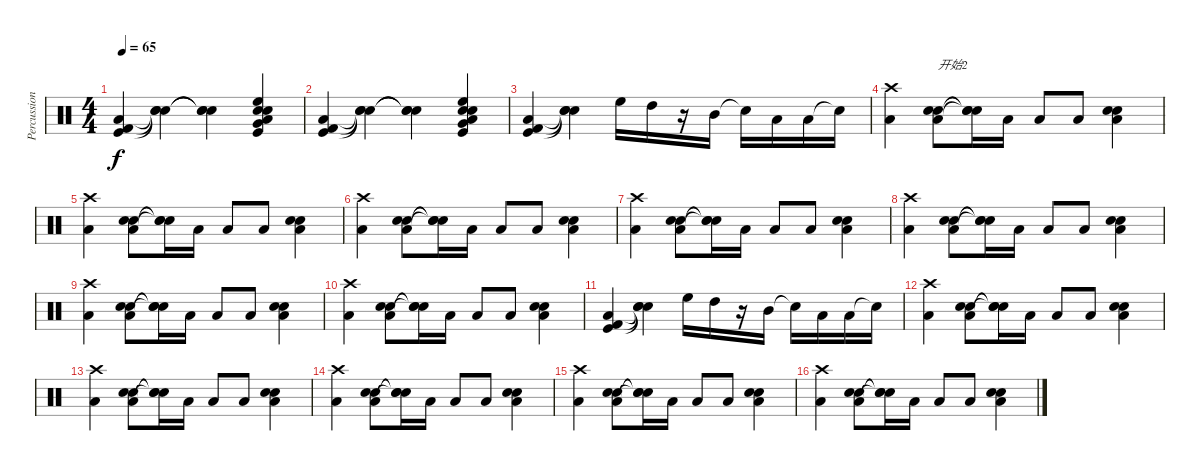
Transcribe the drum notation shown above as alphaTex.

\track ("Percussion" "Percussion") {instrument percussion}
\staff {score}
\articulation defaults
\ts (4 4)
\tempo 65
\clef neutral
\ks c
("Low Floor Tom (hit)" "Kick (hit)" "Kick (hit) 2").4{dy f} ("Snare (hit)"{t} "Snare (hit)"{t} "Snare (hit)"{t}).4 ("Snare (hit)"{t} "Snare (hit)"{t} "Snare (hit)"{t}).4 ("Electric Snare (hit)" "Kick (hit)" "High Floor Tom (hit)" "Hand Clap (hit)" "Low Tom (hit)" "Very Low Tom (hit)").4 |
("Low Floor Tom (hit)" "Kick (hit)" "Kick (hit) 2").4 ("Snare (hit)"{t} "Snare (hit)"{t} "Snare (hit)"{t}).4 ("Snare (hit)"{t} "Snare (hit)"{t} "Snare (hit)"{t}).4 ("Electric Snare (hit)" "Kick (hit)" "High Floor Tom (hit)" "Hand Clap (hit)" "Low Tom (hit)" "Very Low Tom (hit)").4 |
("Low Floor Tom (hit)" "Kick (hit)" "Kick (hit) 2").4 ("Snare (hit)"{t} "Snare (hit)"{t} "Snare (hit)"{t}).4 "High Floor Tom (hit)".16 "High Tom (hit)".16 r.16 "Mid Tom (hit)".16 "Snare (hit)"{t}.16 "Low Tom (hit)".16 "Low Tom (hit)".16 "Snare (hit)"{t}.16 |
("Crash high (hit)" "Low Tom (hit)").4 ("Snare (hit) 2" "Electric Snare (hit)" "Low Tom (hit)").8{txt "开始2"} ("Snare (hit)"{t} "Snare (hit)"{t} "Snare (hit)"{t}).16 "Low Tom (hit)".16 "Low Tom (hit)".8 "Low Tom (hit)".8 ("Snare (hit) 2" "Electric Snare (hit)" "Low Tom (hit)").4 |
("Crash high (hit)" "Low Tom (hit)").4 ("Snare (hit) 2" "Electric Snare (hit)" "Low Tom (hit)").8 ("Snare (hit)"{t} "Snare (hit)"{t} "Snare (hit)"{t}).16 "Low Tom (hit)".16 "Low Tom (hit)".8 "Low Tom (hit)".8 ("Snare (hit) 2" "Electric Snare (hit)" "Low Tom (hit)").4 |
("Crash high (hit)" "Low Tom (hit)").4 ("Snare (hit) 2" "Electric Snare (hit)" "Low Tom (hit)").8 ("Snare (hit)"{t} "Snare (hit)"{t} "Snare (hit)"{t}).16 "Low Tom (hit)".16 "Low Tom (hit)".8 "Low Tom (hit)".8 ("Snare (hit) 2" "Electric Snare (hit)" "Low Tom (hit)").4 |
("Crash high (hit)" "Low Tom (hit)").4 ("Snare (hit) 2" "Electric Snare (hit)" "Low Tom (hit)").8 ("Snare (hit)"{t} "Snare (hit)"{t} "Snare (hit)"{t}).16 "Low Tom (hit)".16 "Low Tom (hit)".8 "Low Tom (hit)".8 ("Snare (hit) 2" "Electric Snare (hit)" "Low Tom (hit)").4 |
("Crash high (hit)" "Low Tom (hit)").4 ("Snare (hit) 2" "Electric Snare (hit)" "Low Tom (hit)").8 ("Snare (hit)"{t} "Snare (hit)"{t} "Snare (hit)"{t}).16 "Low Tom (hit)".16 "Low Tom (hit)".8 "Low Tom (hit)".8 ("Snare (hit) 2" "Electric Snare (hit)" "Low Tom (hit)").4 |
("Crash high (hit)" "Low Tom (hit)").4 ("Snare (hit) 2" "Electric Snare (hit)" "Low Tom (hit)").8 ("Snare (hit)"{t} "Snare (hit)"{t} "Snare (hit)"{t}).16 "Low Tom (hit)".16 "Low Tom (hit)".8 "Low Tom (hit)".8 ("Snare (hit) 2" "Electric Snare (hit)" "Low Tom (hit)").4 |
("Crash high (hit)" "Low Tom (hit)").4 ("Snare (hit) 2" "Electric Snare (hit)" "Low Tom (hit)").8 ("Snare (hit)"{t} "Snare (hit)"{t} "Snare (hit)"{t}).16 "Low Tom (hit)".16 "Low Tom (hit)".8 "Low Tom (hit)".8 ("Snare (hit) 2" "Electric Snare (hit)" "Low Tom (hit)").4 |
("Low Floor Tom (hit)" "Kick (hit)" "Kick (hit) 2").4 ("Snare (hit)"{t} "Snare (hit)"{t} "Snare (hit)"{t}).4 "High Floor Tom (hit)".16 "High Tom (hit)".16 r.16 "Mid Tom (hit)".16 "Snare (hit)"{t}.16 "Low Tom (hit)".16 "Low Tom (hit)".16 "Snare (hit)"{t}.16 |
("Crash high (hit)" "Low Tom (hit)").4 ("Snare (hit) 2" "Electric Snare (hit)" "Low Tom (hit)").8 ("Snare (hit)"{t} "Snare (hit)"{t} "Snare (hit)"{t}).16 "Low Tom (hit)".16 "Low Tom (hit)".8 "Low Tom (hit)".8 ("Snare (hit) 2" "Electric Snare (hit)" "Low Tom (hit)").4 |
("Crash high (hit)" "Low Tom (hit)").4 ("Snare (hit) 2" "Electric Snare (hit)" "Low Tom (hit)").8 ("Snare (hit)"{t} "Snare (hit)"{t} "Snare (hit)"{t}).16 "Low Tom (hit)".16 "Low Tom (hit)".8 "Low Tom (hit)".8 ("Snare (hit) 2" "Electric Snare (hit)" "Low Tom (hit)").4 |
("Crash high (hit)" "Low Tom (hit)").4 ("Snare (hit) 2" "Electric Snare (hit)" "Low Tom (hit)").8 ("Snare (hit)"{t} "Snare (hit)"{t} "Snare (hit)"{t}).16 "Low Tom (hit)".16 "Low Tom (hit)".8 "Low Tom (hit)".8 ("Snare (hit) 2" "Electric Snare (hit)" "Low Tom (hit)").4 |
("Crash high (hit)" "Low Tom (hit)").4 ("Snare (hit) 2" "Electric Snare (hit)" "Low Tom (hit)").8 ("Snare (hit)"{t} "Snare (hit)"{t} "Snare (hit)"{t}).16 "Low Tom (hit)".16 "Low Tom (hit)".8 "Low Tom (hit)".8 ("Snare (hit) 2" "Electric Snare (hit)" "Low Tom (hit)").4 |
("Crash high (hit)" "Low Tom (hit)").4 ("Snare (hit) 2" "Electric Snare (hit)" "Low Tom (hit)").8 ("Snare (hit)"{t} "Snare (hit)"{t} "Snare (hit)"{t}).16 "Low Tom (hit)".16 "Low Tom (hit)".8 "Low Tom (hit)".8 ("Snare (hit) 2" "Electric Snare (hit)" "Low Tom (hit)").4
